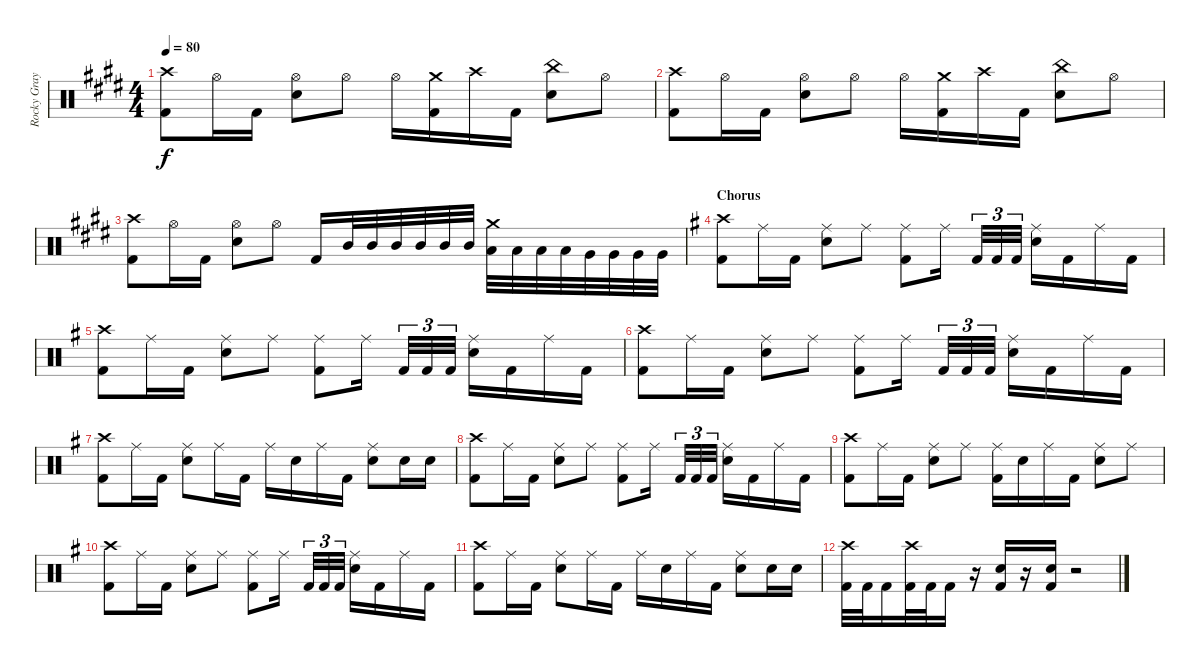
\track ("Rocky Gray" "Rocky Gray") {instrument percussion}
\staff {score}
\articulation defaults
\ts (4 4)
\tempo 80
\clef neutral
\ks e
("Crash high (hit)" "Kick (hit) 2").8{dy f} "Hi-Hat (open)".16 "Kick (hit) 2".16 ("Hi-Hat (open)" "Snare (hit) 2").8 "Hi-Hat (open)".8 "Hi-Hat (open)".16 ("Crash medium (hit)" "Kick (hit) 2").16 "Crash high (hit)".16 "Kick (hit) 2".16 ("China (hit)" "Snare (hit) 2").8 "Hi-Hat (open)".8 |
("Crash high (hit)" "Kick (hit) 2").8 "Hi-Hat (open)".16 "Kick (hit) 2".16 ("Hi-Hat (open)" "Snare (hit) 2").8 "Hi-Hat (open)".8 "Hi-Hat (open)".16 ("Crash medium (hit)" "Kick (hit) 2").16 "Crash high (hit)".16 "Kick (hit) 2".16 ("China (hit)" "Snare (hit) 2").8 "Hi-Hat (open)".8 |
("Crash high (hit)" "Kick (hit) 2").8 "Hi-Hat (open)".16 "Kick (hit) 2".16 ("Hi-Hat (open)" "Snare (hit) 2").8 "Hi-Hat (open)".8 "Kick (hit) 2".16 "Mid Tom (hit)".32 "Mid Tom (hit)".32 "Mid Tom (hit)".32 "Mid Tom (hit)".32 "Mid Tom (hit)".32 "Mid Tom (hit)".32 ("Crash medium (hit)" "Low Tom (hit)").32 "Low Tom (hit)".32 "Low Tom (hit)".32 "Low Tom (hit)".32 "Very Low Tom (hit)".32 "Very Low Tom (hit)".32 "Very Low Tom (hit)".32 "Very Low Tom (hit)".32 |
\section ("" "Chorus")
\ks g
("Crash high (hit)" "Kick (hit) 2").8 "Ride (middle)".16 "Kick (hit) 2".16 ("Ride (middle)" "Snare (hit) 2").8 "Ride (middle)".8 ("Ride (middle)" "Kick (hit) 2").8 "Ride (middle)".16 "Kick (hit) 2".32{tu (3 2)} "Kick (hit) 2".32{tu (3 2)} "Kick (hit) 2".32{tu (3 2)} ("Ride (middle)" "Snare (hit) 2").16 "Kick (hit) 2".16 "Ride (middle)".16 "Kick (hit) 2".16 |
("Crash high (hit)" "Kick (hit) 2").8 "Ride (middle)".16 "Kick (hit) 2".16 ("Ride (middle)" "Snare (hit) 2").8 "Ride (middle)".8 ("Ride (middle)" "Kick (hit) 2").8 "Ride (middle)".16 "Kick (hit) 2".32{tu (3 2)} "Kick (hit) 2".32{tu (3 2)} "Kick (hit) 2".32{tu (3 2)} ("Ride (middle)" "Snare (hit) 2").16 "Kick (hit) 2".16 "Ride (middle)".16 "Kick (hit) 2".16 |
("Crash high (hit)" "Kick (hit) 2").8 "Ride (middle)".16 "Kick (hit) 2".16 ("Ride (middle)" "Snare (hit) 2").8 "Ride (middle)".8 ("Ride (middle)" "Kick (hit) 2").8 "Ride (middle)".16 "Kick (hit) 2".32{tu (3 2)} "Kick (hit) 2".32{tu (3 2)} "Kick (hit) 2".32{tu (3 2)} ("Ride (middle)" "Snare (hit) 2").16 "Kick (hit) 2".16 "Ride (middle)".16 "Kick (hit) 2".16 |
("Crash high (hit)" "Kick (hit) 2").8 "Ride (middle)".16 "Kick (hit) 2".16 ("Ride (middle)" "Snare (hit) 2").8 "Ride (middle)".16 "Kick (hit) 2".16 "Ride (middle)".16 "Snare (hit) 2".16 "Ride (middle)".16 "Kick (hit) 2".16 ("Ride (middle)" "Snare (hit) 2").8 "Snare (hit) 2".16 "Snare (hit) 2".16 |
("Crash high (hit)" "Kick (hit) 2").8 "Ride (middle)".16 "Kick (hit) 2".16 ("Ride (middle)" "Snare (hit) 2").8 "Ride (middle)".8 ("Ride (middle)" "Kick (hit) 2").8 "Ride (middle)".16 "Kick (hit) 2".32{tu (3 2)} "Kick (hit) 2".32{tu (3 2)} "Kick (hit) 2".32{tu (3 2)} ("Ride (middle)" "Snare (hit) 2").16 "Kick (hit) 2".16 "Ride (middle)".16 "Kick (hit) 2".16 |
("Crash high (hit)" "Kick (hit) 2").8 "Ride (middle)".16 "Kick (hit) 2".16 ("Ride (middle)" "Snare (hit) 2").8 "Ride (middle)".8 ("Ride (middle)" "Kick (hit) 2").16 "Snare (hit) 2".16 "Ride (middle)".16 "Kick (hit) 2".16 ("Ride (middle)" "Snare (hit) 2").8 "Ride (middle)".8 |
("Crash high (hit)" "Kick (hit) 2").8 "Ride (middle)".16 "Kick (hit) 2".16 ("Ride (middle)" "Snare (hit) 2").8 "Ride (middle)".8 ("Ride (middle)" "Kick (hit) 2").8 "Ride (middle)".16 "Kick (hit) 2".32{tu (3 2)} "Kick (hit) 2".32{tu (3 2)} "Kick (hit) 2".32{tu (3 2)} ("Ride (middle)" "Snare (hit) 2").16 "Kick (hit) 2".16 "Ride (middle)".16 "Kick (hit) 2".16 |
("Crash high (hit)" "Kick (hit) 2").8 "Ride (middle)".16 "Kick (hit) 2".16 ("Ride (middle)" "Snare (hit) 2").8 "Ride (middle)".16 "Kick (hit) 2".16 "Ride (middle)".16 "Snare (hit) 2".16 "Ride (middle)".16 "Kick (hit) 2".16 ("Ride (middle)" "Snare (hit) 2").8 "Snare (hit) 2".16 "Snare (hit) 2".16 |
("Crash high (hit)" "Kick (hit) 2").32 "Kick (hit) 2".32 "Kick (hit) 2".16 ("Crash high (hit)" "Kick (hit) 2").32 "Kick (hit) 2".32 "Kick (hit) 2".16 r.16 ("Snare (hit) 2" "Kick (hit) 2").16 r.16 ("Snare (hit) 2" "Kick (hit) 2").16 r.2
